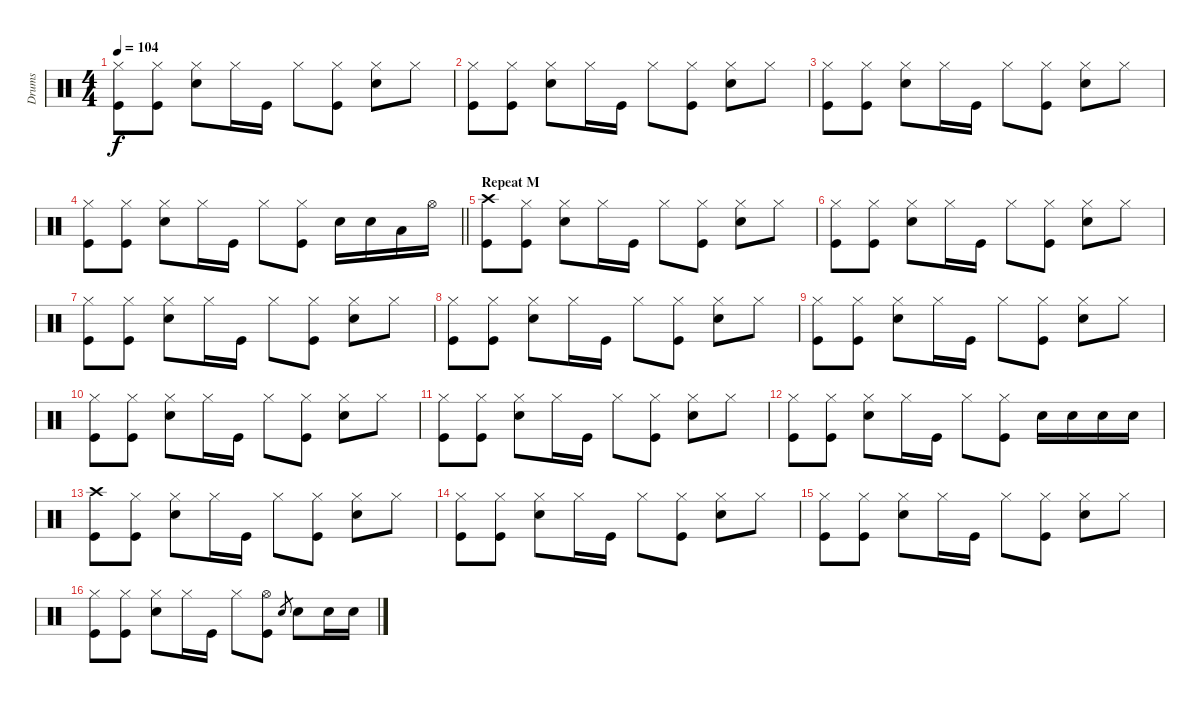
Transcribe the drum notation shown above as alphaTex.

\track ("Drums" "Drums") {instrument percussion}
\staff {score}
\articulation defaults
\ts (4 4)
\tempo 104
\clef neutral
\ks c
("Hi-Hat (closed)" "Kick (hit)").8{dy f} ("Hi-Hat (closed)" "Kick (hit)").8 ("Hi-Hat (closed)" "Electric Snare (hit)").8 "Hi-Hat (closed)".16 "Kick (hit)".16 "Hi-Hat (closed)".8 ("Hi-Hat (closed)" "Kick (hit)").8 ("Hi-Hat (closed)" "Electric Snare (hit)").8 "Hi-Hat (closed)".8 |
("Hi-Hat (closed)" "Kick (hit)").8 ("Hi-Hat (closed)" "Kick (hit)").8 ("Hi-Hat (closed)" "Electric Snare (hit)").8 "Hi-Hat (closed)".16 "Kick (hit)".16 "Hi-Hat (closed)".8 ("Hi-Hat (closed)" "Kick (hit)").8 ("Hi-Hat (closed)" "Electric Snare (hit)").8 "Hi-Hat (closed)".8 |
("Hi-Hat (closed)" "Kick (hit)").8 ("Hi-Hat (closed)" "Kick (hit)").8 ("Hi-Hat (closed)" "Electric Snare (hit)").8 "Hi-Hat (closed)".16 "Kick (hit)".16 "Hi-Hat (closed)".8 ("Hi-Hat (closed)" "Kick (hit)").8 ("Hi-Hat (closed)" "Electric Snare (hit)").8 "Hi-Hat (closed)".8 |
\barLineRight lightlight
("Hi-Hat (closed)" "Kick (hit)").8 ("Hi-Hat (closed)" "Kick (hit)").8 ("Hi-Hat (closed)" "Electric Snare (hit)").8 "Hi-Hat (closed)".16 "Kick (hit)".16 "Hi-Hat (closed)".8 ("Hi-Hat (closed)" "Kick (hit)").8 "Electric Snare (hit)".16 "Electric Snare (hit)".16 "Low Tom (hit)".16 "Hi-Hat (open)".16 |
\section ("" "Repeat M")
("Crash high (hit)" "Kick (hit)").8 ("Hi-Hat (closed)" "Kick (hit)").8 ("Hi-Hat (closed)" "Electric Snare (hit)").8 "Hi-Hat (closed)".16 "Kick (hit)".16 "Hi-Hat (closed)".8 ("Hi-Hat (closed)" "Kick (hit)").8 ("Hi-Hat (closed)" "Electric Snare (hit)").8 "Hi-Hat (closed)".8 |
("Hi-Hat (closed)" "Kick (hit)").8 ("Hi-Hat (closed)" "Kick (hit)").8 ("Hi-Hat (closed)" "Electric Snare (hit)").8 "Hi-Hat (closed)".16 "Kick (hit)".16 "Hi-Hat (closed)".8 ("Hi-Hat (closed)" "Kick (hit)").8 ("Hi-Hat (closed)" "Electric Snare (hit)").8 "Hi-Hat (closed)".8 |
("Hi-Hat (closed)" "Kick (hit)").8 ("Hi-Hat (closed)" "Kick (hit)").8 ("Hi-Hat (closed)" "Electric Snare (hit)").8 "Hi-Hat (closed)".16 "Kick (hit)".16 "Hi-Hat (closed)".8 ("Hi-Hat (closed)" "Kick (hit)").8 ("Hi-Hat (closed)" "Electric Snare (hit)").8 "Hi-Hat (closed)".8 |
("Hi-Hat (closed)" "Kick (hit)").8 ("Hi-Hat (closed)" "Kick (hit)").8 ("Hi-Hat (closed)" "Electric Snare (hit)").8 "Hi-Hat (closed)".16 "Kick (hit)".16 "Hi-Hat (closed)".8 ("Hi-Hat (closed)" "Kick (hit)").8 ("Hi-Hat (closed)" "Electric Snare (hit)").8 "Hi-Hat (closed)".8 |
("Hi-Hat (closed)" "Kick (hit)").8 ("Hi-Hat (closed)" "Kick (hit)").8 ("Hi-Hat (closed)" "Electric Snare (hit)").8 "Hi-Hat (closed)".16 "Kick (hit)".16 "Hi-Hat (closed)".8 ("Hi-Hat (closed)" "Kick (hit)").8 ("Hi-Hat (closed)" "Electric Snare (hit)").8 "Hi-Hat (closed)".8 |
("Hi-Hat (closed)" "Kick (hit)").8 ("Hi-Hat (closed)" "Kick (hit)").8 ("Hi-Hat (closed)" "Electric Snare (hit)").8 "Hi-Hat (closed)".16 "Kick (hit)".16 "Hi-Hat (closed)".8 ("Hi-Hat (closed)" "Kick (hit)").8 ("Hi-Hat (closed)" "Electric Snare (hit)").8 "Hi-Hat (closed)".8 |
("Hi-Hat (closed)" "Kick (hit)").8 ("Hi-Hat (closed)" "Kick (hit)").8 ("Hi-Hat (closed)" "Electric Snare (hit)").8 "Hi-Hat (closed)".16 "Kick (hit)".16 "Hi-Hat (closed)".8 ("Hi-Hat (closed)" "Kick (hit)").8 ("Hi-Hat (closed)" "Electric Snare (hit)").8 "Hi-Hat (closed)".8 |
("Hi-Hat (closed)" "Kick (hit)").8 ("Hi-Hat (closed)" "Kick (hit)").8 ("Hi-Hat (closed)" "Electric Snare (hit)").8 "Hi-Hat (closed)".16 "Kick (hit)".16 "Hi-Hat (closed)".8 ("Hi-Hat (closed)" "Kick (hit)").8 "Electric Snare (hit)".16 "Electric Snare (hit)".16 "Electric Snare (hit)".16 "Electric Snare (hit)".16 |
("Crash high (hit)" "Kick (hit)").8 ("Hi-Hat (closed)" "Kick (hit)").8 ("Hi-Hat (closed)" "Electric Snare (hit)").8 "Hi-Hat (closed)".16 "Kick (hit)".16 "Hi-Hat (closed)".8 ("Hi-Hat (closed)" "Kick (hit)").8 ("Hi-Hat (closed)" "Electric Snare (hit)").8 "Hi-Hat (closed)".8 |
("Hi-Hat (closed)" "Kick (hit)").8 ("Hi-Hat (closed)" "Kick (hit)").8 ("Hi-Hat (closed)" "Electric Snare (hit)").8 "Hi-Hat (closed)".16 "Kick (hit)".16 "Hi-Hat (closed)".8 ("Hi-Hat (closed)" "Kick (hit)").8 ("Hi-Hat (closed)" "Electric Snare (hit)").8 "Hi-Hat (closed)".8 |
("Hi-Hat (closed)" "Kick (hit)").8 ("Hi-Hat (closed)" "Kick (hit)").8 ("Hi-Hat (closed)" "Electric Snare (hit)").8 "Hi-Hat (closed)".16 "Kick (hit)".16 "Hi-Hat (closed)".8 ("Hi-Hat (closed)" "Kick (hit)").8 ("Hi-Hat (closed)" "Electric Snare (hit)").8 "Hi-Hat (closed)".8 |
("Hi-Hat (closed)" "Kick (hit)").8 ("Hi-Hat (closed)" "Kick (hit)").8 ("Hi-Hat (closed)" "Electric Snare (hit)").8 "Hi-Hat (closed)".16 "Kick (hit)".16 "Hi-Hat (closed)".8 ("Hi-Hat (open)" "Kick (hit)").8 "Electric Snare (hit)".8{gr} "Electric Snare (hit)".8 "Electric Snare (hit)".16 "Electric Snare (hit)".16
